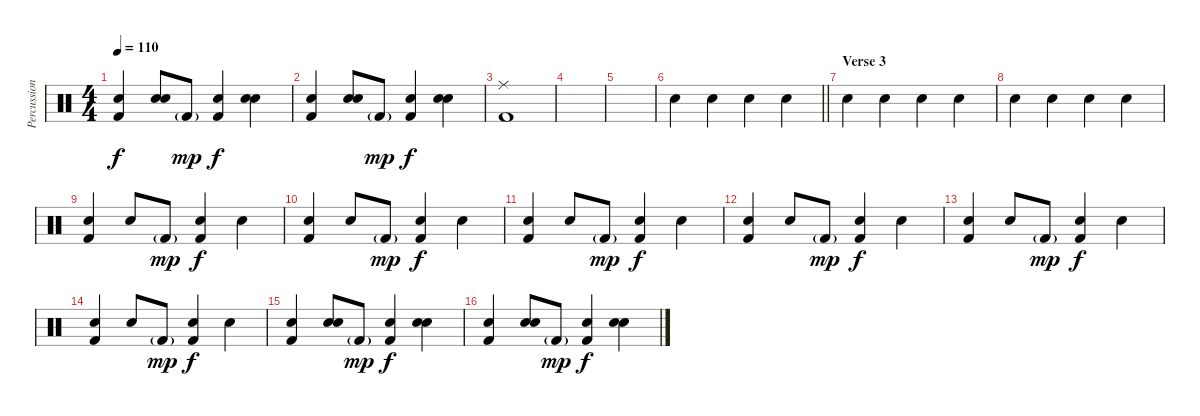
\track ("Percussion" "Percussion") {instrument percussion}
\staff {score}
\articulation defaults
\ts (4 4)
\tempo 110
\clef neutral
\ks c
("Hand Clap (hit)" "Kick (hit) 2").4{dy f} ("Snare (hit) 2" "Hand Clap (hit)").8 "Kick (hit) 2"{g}.8{dy mp} ("Hand Clap (hit)" "Kick (hit) 2").4{dy f} ("Snare (hit) 2" "Hand Clap (hit)").4 |
("Hand Clap (hit)" "Kick (hit) 2").4 ("Snare (hit) 2" "Hand Clap (hit)").8 "Kick (hit) 2"{g}.8{dy mp} ("Hand Clap (hit)" "Kick (hit) 2").4{dy f} ("Snare (hit) 2" "Hand Clap (hit)").4 |
("Ride (middle)" "Kick (hit) 2").1 |
|
|
\barLineRight lightlight "Hand Clap (hit)".4 "Hand Clap (hit)".4 "Hand Clap (hit)".4 "Hand Clap (hit)".4
|
\section ("" "Verse 3")
"Hand Clap (hit)".4 "Hand Clap (hit)".4 "Hand Clap (hit)".4 "Hand Clap (hit)".4 |
"Hand Clap (hit)".4 "Hand Clap (hit)".4 "Hand Clap (hit)".4 "Hand Clap (hit)".4 |
("Hand Clap (hit)" "Kick (hit) 2").4 "Hand Clap (hit)".8 "Kick (hit) 2"{g}.8{dy mp} ("Hand Clap (hit)" "Kick (hit) 2").4{dy f} "Hand Clap (hit)".4 |
("Hand Clap (hit)" "Kick (hit) 2").4 "Hand Clap (hit)".8 "Kick (hit) 2"{g}.8{dy mp} ("Hand Clap (hit)" "Kick (hit) 2").4{dy f} "Hand Clap (hit)".4 |
("Hand Clap (hit)" "Kick (hit) 2").4 "Hand Clap (hit)".8 "Kick (hit) 2"{g}.8{dy mp} ("Hand Clap (hit)" "Kick (hit) 2").4{dy f} "Hand Clap (hit)".4 |
("Hand Clap (hit)" "Kick (hit) 2").4 "Hand Clap (hit)".8 "Kick (hit) 2"{g}.8{dy mp} ("Hand Clap (hit)" "Kick (hit) 2").4{dy f} "Hand Clap (hit)".4 |
("Hand Clap (hit)" "Kick (hit) 2").4 "Hand Clap (hit)".8 "Kick (hit) 2"{g}.8{dy mp} ("Hand Clap (hit)" "Kick (hit) 2").4{dy f} "Hand Clap (hit)".4 |
("Hand Clap (hit)" "Kick (hit) 2").4 "Hand Clap (hit)".8 "Kick (hit) 2"{g}.8{dy mp} ("Hand Clap (hit)" "Kick (hit) 2").4{dy f} "Hand Clap (hit)".4 |
("Hand Clap (hit)" "Kick (hit) 2").4 ("Snare (hit) 2" "Hand Clap (hit)").8 "Kick (hit) 2"{g}.8{dy mp} ("Hand Clap (hit)" "Kick (hit) 2").4{dy f} ("Snare (hit) 2" "Hand Clap (hit)").4 |
("Hand Clap (hit)" "Kick (hit) 2").4 ("Snare (hit) 2" "Hand Clap (hit)").8 "Kick (hit) 2"{g}.8{dy mp} ("Hand Clap (hit)" "Kick (hit) 2").4{dy f} ("Snare (hit) 2" "Hand Clap (hit)").4
